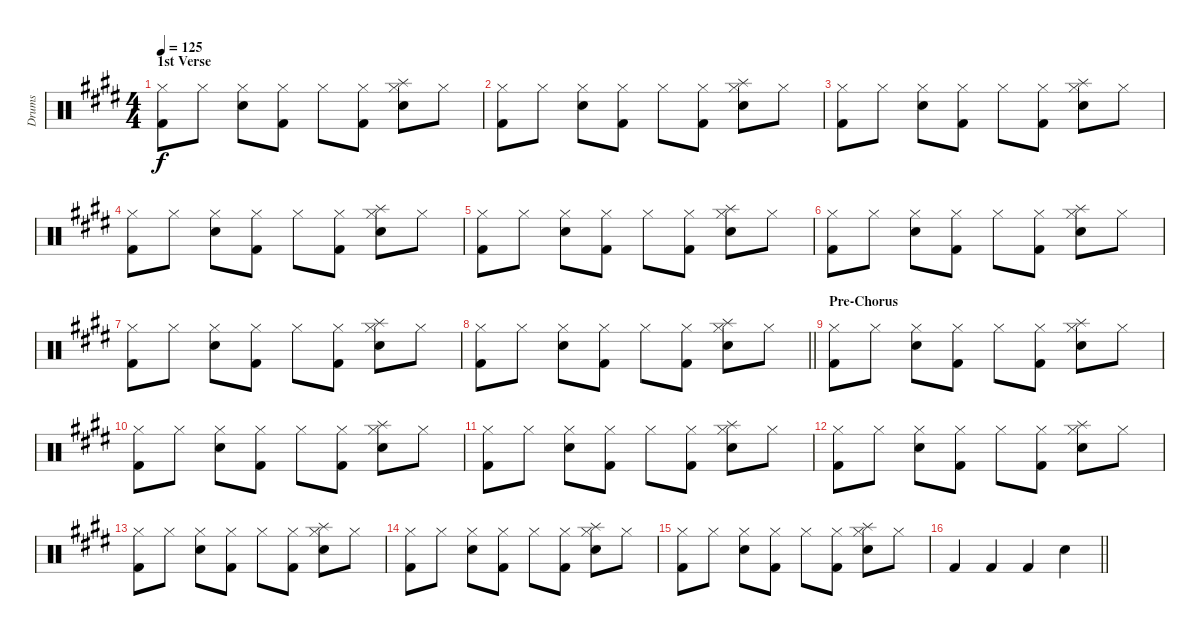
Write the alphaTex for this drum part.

\track ("Drums" "Drums") {instrument percussion}
\staff {score}
\articulation defaults
\ts (4 4)
\section ("" "1st Verse")
\tempo 125
\clef neutral
\ks c#minor
("Hi-Hat (closed)" "Kick (hit) 2").8{dy f} "Hi-Hat (closed)".8 ("Hi-Hat (closed)" "Snare (hit) 2").8 ("Hi-Hat (closed)" "Kick (hit) 2").8 "Hi-Hat (closed)".8 ("Hi-Hat (closed)" "Kick (hit) 2").8 ("Hi-Hat (closed)" "Snare (hit) 2" "Splash (hit)").8 "Hi-Hat (closed)".8 |
("Hi-Hat (closed)" "Kick (hit) 2").8 "Hi-Hat (closed)".8 ("Hi-Hat (closed)" "Snare (hit) 2").8 ("Hi-Hat (closed)" "Kick (hit) 2").8 "Hi-Hat (closed)".8 ("Hi-Hat (closed)" "Kick (hit) 2").8 ("Hi-Hat (closed)" "Snare (hit) 2" "Splash (hit)").8 "Hi-Hat (closed)".8 |
("Hi-Hat (closed)" "Kick (hit) 2").8 "Hi-Hat (closed)".8 ("Hi-Hat (closed)" "Snare (hit) 2").8 ("Hi-Hat (closed)" "Kick (hit) 2").8 "Hi-Hat (closed)".8 ("Hi-Hat (closed)" "Kick (hit) 2").8 ("Hi-Hat (closed)" "Snare (hit) 2" "Splash (hit)").8 "Hi-Hat (closed)".8 |
("Hi-Hat (closed)" "Kick (hit) 2").8 "Hi-Hat (closed)".8 ("Hi-Hat (closed)" "Snare (hit) 2").8 ("Hi-Hat (closed)" "Kick (hit) 2").8 "Hi-Hat (closed)".8 ("Hi-Hat (closed)" "Kick (hit) 2").8 ("Hi-Hat (closed)" "Snare (hit) 2" "Splash (hit)").8 "Hi-Hat (closed)".8 |
("Hi-Hat (closed)" "Kick (hit) 2").8 "Hi-Hat (closed)".8 ("Hi-Hat (closed)" "Snare (hit) 2").8 ("Hi-Hat (closed)" "Kick (hit) 2").8 "Hi-Hat (closed)".8 ("Hi-Hat (closed)" "Kick (hit) 2").8 ("Hi-Hat (closed)" "Snare (hit) 2" "Splash (hit)").8 "Hi-Hat (closed)".8 |
("Hi-Hat (closed)" "Kick (hit) 2").8 "Hi-Hat (closed)".8 ("Hi-Hat (closed)" "Snare (hit) 2").8 ("Hi-Hat (closed)" "Kick (hit) 2").8 "Hi-Hat (closed)".8 ("Hi-Hat (closed)" "Kick (hit) 2").8 ("Hi-Hat (closed)" "Snare (hit) 2" "Splash (hit)").8 "Hi-Hat (closed)".8 |
("Hi-Hat (closed)" "Kick (hit) 2").8 "Hi-Hat (closed)".8 ("Hi-Hat (closed)" "Snare (hit) 2").8 ("Hi-Hat (closed)" "Kick (hit) 2").8 "Hi-Hat (closed)".8 ("Hi-Hat (closed)" "Kick (hit) 2").8 ("Hi-Hat (closed)" "Snare (hit) 2" "Splash (hit)").8 "Hi-Hat (closed)".8 |
\barLineRight lightlight
("Hi-Hat (closed)" "Kick (hit) 2").8 "Hi-Hat (closed)".8 ("Hi-Hat (closed)" "Snare (hit) 2").8 ("Hi-Hat (closed)" "Kick (hit) 2").8 "Hi-Hat (closed)".8 ("Hi-Hat (closed)" "Kick (hit) 2").8 ("Hi-Hat (closed)" "Snare (hit) 2" "Splash (hit)").8 "Hi-Hat (closed)".8 |
\section ("" "Pre-Chorus")
("Hi-Hat (closed)" "Kick (hit) 2").8 "Hi-Hat (closed)".8 ("Hi-Hat (closed)" "Snare (hit) 2").8 ("Hi-Hat (closed)" "Kick (hit) 2").8 "Hi-Hat (closed)".8 ("Hi-Hat (closed)" "Kick (hit) 2").8 ("Hi-Hat (closed)" "Snare (hit) 2" "Splash (hit)").8 "Hi-Hat (closed)".8 |
("Hi-Hat (closed)" "Kick (hit) 2").8 "Hi-Hat (closed)".8 ("Hi-Hat (closed)" "Snare (hit) 2").8 ("Hi-Hat (closed)" "Kick (hit) 2").8 "Hi-Hat (closed)".8 ("Hi-Hat (closed)" "Kick (hit) 2").8 ("Hi-Hat (closed)" "Snare (hit) 2" "Splash (hit)").8 "Hi-Hat (closed)".8 |
("Hi-Hat (closed)" "Kick (hit) 2").8 "Hi-Hat (closed)".8 ("Hi-Hat (closed)" "Snare (hit) 2").8 ("Hi-Hat (closed)" "Kick (hit) 2").8 "Hi-Hat (closed)".8 ("Hi-Hat (closed)" "Kick (hit) 2").8 ("Hi-Hat (closed)" "Snare (hit) 2" "Splash (hit)").8 "Hi-Hat (closed)".8 |
("Hi-Hat (closed)" "Kick (hit) 2").8 "Hi-Hat (closed)".8 ("Hi-Hat (closed)" "Snare (hit) 2").8 ("Hi-Hat (closed)" "Kick (hit) 2").8 "Hi-Hat (closed)".8 ("Hi-Hat (closed)" "Kick (hit) 2").8 ("Hi-Hat (closed)" "Snare (hit) 2" "Splash (hit)").8 "Hi-Hat (closed)".8 |
("Hi-Hat (closed)" "Kick (hit) 2").8 "Hi-Hat (closed)".8 ("Hi-Hat (closed)" "Snare (hit) 2").8 ("Hi-Hat (closed)" "Kick (hit) 2").8 "Hi-Hat (closed)".8 ("Hi-Hat (closed)" "Kick (hit) 2").8 ("Hi-Hat (closed)" "Snare (hit) 2" "Splash (hit)").8 "Hi-Hat (closed)".8 |
("Hi-Hat (closed)" "Kick (hit) 2").8 "Hi-Hat (closed)".8 ("Hi-Hat (closed)" "Snare (hit) 2").8 ("Hi-Hat (closed)" "Kick (hit) 2").8 "Hi-Hat (closed)".8 ("Hi-Hat (closed)" "Kick (hit) 2").8 ("Hi-Hat (closed)" "Snare (hit) 2" "Splash (hit)").8 "Hi-Hat (closed)".8 |
("Hi-Hat (closed)" "Kick (hit) 2").8 "Hi-Hat (closed)".8 ("Hi-Hat (closed)" "Snare (hit) 2").8 ("Hi-Hat (closed)" "Kick (hit) 2").8 "Hi-Hat (closed)".8 ("Hi-Hat (closed)" "Kick (hit) 2").8 ("Hi-Hat (closed)" "Snare (hit) 2" "Splash (hit)").8 "Hi-Hat (closed)".8 |
\barLineRight lightlight "Kick (hit) 2".4 "Kick (hit) 2".4 "Kick (hit) 2".4 "Snare (hit) 2".4
